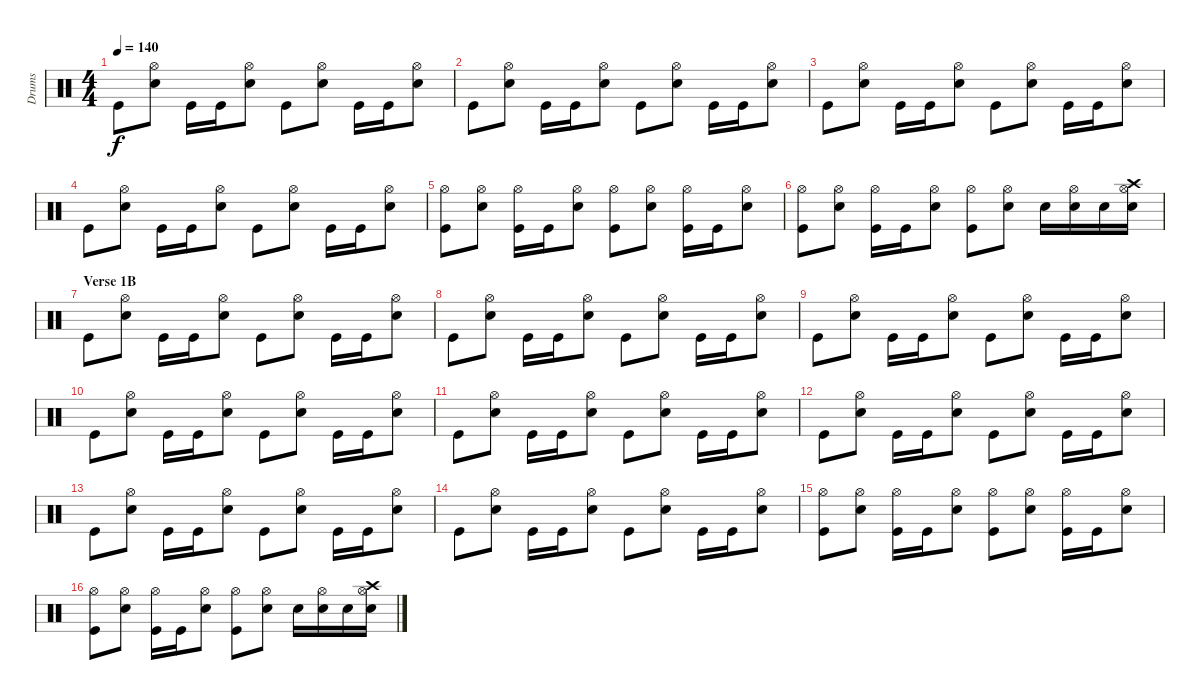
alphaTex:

\track ("Drums" "Drums") {instrument percussion}
\staff {score}
\articulation defaults
\ts (4 4)
\tempo 140
\clef neutral
\ks c "Kick (hit)".8{dy f}
("Snare (hit) 2" "Hi-Hat (open)").8 "Kick (hit)".16 "Kick (hit)".16 ("Snare (hit) 2" "Hi-Hat (open)").8 "Kick (hit)".8 ("Snare (hit) 2" "Hi-Hat (open)").8 "Kick (hit)".16 "Kick (hit)".16 ("Snare (hit) 2" "Hi-Hat (open)").8 |
"Kick (hit)".8 ("Snare (hit) 2" "Hi-Hat (open)").8 "Kick (hit)".16 "Kick (hit)".16 ("Snare (hit) 2" "Hi-Hat (open)").8 "Kick (hit)".8 ("Snare (hit) 2" "Hi-Hat (open)").8 "Kick (hit)".16 "Kick (hit)".16 ("Snare (hit) 2" "Hi-Hat (open)").8 |
"Kick (hit)".8 ("Snare (hit) 2" "Hi-Hat (open)").8 "Kick (hit)".16 "Kick (hit)".16 ("Snare (hit) 2" "Hi-Hat (open)").8 "Kick (hit)".8 ("Snare (hit) 2" "Hi-Hat (open)").8 "Kick (hit)".16 "Kick (hit)".16 ("Snare (hit) 2" "Hi-Hat (open)").8 |
"Kick (hit)".8 ("Snare (hit) 2" "Hi-Hat (open)").8 "Kick (hit)".16 "Kick (hit)".16 ("Snare (hit) 2" "Hi-Hat (open)").8 "Kick (hit)".8 ("Snare (hit) 2" "Hi-Hat (open)").8 "Kick (hit)".16 "Kick (hit)".16 ("Snare (hit) 2" "Hi-Hat (open)").8 |
("Kick (hit)" "Hi-Hat (open)").8 ("Snare (hit) 2" "Hi-Hat (open)").8 ("Kick (hit)" "Hi-Hat (open)").16 "Kick (hit)".16 ("Snare (hit) 2" "Hi-Hat (open)").8 ("Kick (hit)" "Hi-Hat (open)").8 ("Snare (hit) 2" "Hi-Hat (open)").8 ("Kick (hit)" "Hi-Hat (open)").16 "Kick (hit)".16 ("Snare (hit) 2" "Hi-Hat (open)").8 |
("Kick (hit)" "Hi-Hat (open)").8 ("Snare (hit) 2" "Hi-Hat (open)").8 ("Kick (hit)" "Hi-Hat (open)").16 "Kick (hit)".16 ("Snare (hit) 2" "Hi-Hat (open)").8 ("Kick (hit)" "Hi-Hat (open)").8 ("Snare (hit) 2" "Hi-Hat (open)").8 "Electric Snare (hit)".16 ("Electric Snare (hit)" "Hi-Hat (open)").16 "Electric Snare (hit)".16 ("Crash high (hit)" "Electric Snare (hit)" "Hi-Hat (open)").16 |
\section ("" "Verse 1B")
"Kick (hit)".8 ("Snare (hit) 2" "Hi-Hat (open)").8 "Kick (hit)".16 "Kick (hit)".16 ("Snare (hit) 2" "Hi-Hat (open)").8 "Kick (hit)".8 ("Snare (hit) 2" "Hi-Hat (open)").8 "Kick (hit)".16 "Kick (hit)".16 ("Snare (hit) 2" "Hi-Hat (open)").8 |
"Kick (hit)".8 ("Snare (hit) 2" "Hi-Hat (open)").8 "Kick (hit)".16 "Kick (hit)".16 ("Snare (hit) 2" "Hi-Hat (open)").8 "Kick (hit)".8 ("Snare (hit) 2" "Hi-Hat (open)").8 "Kick (hit)".16 "Kick (hit)".16 ("Snare (hit) 2" "Hi-Hat (open)").8 |
"Kick (hit)".8 ("Snare (hit) 2" "Hi-Hat (open)").8 "Kick (hit)".16 "Kick (hit)".16 ("Snare (hit) 2" "Hi-Hat (open)").8 "Kick (hit)".8 ("Snare (hit) 2" "Hi-Hat (open)").8 "Kick (hit)".16 "Kick (hit)".16 ("Snare (hit) 2" "Hi-Hat (open)").8 |
"Kick (hit)".8 ("Snare (hit) 2" "Hi-Hat (open)").8 "Kick (hit)".16 "Kick (hit)".16 ("Snare (hit) 2" "Hi-Hat (open)").8 "Kick (hit)".8 ("Snare (hit) 2" "Hi-Hat (open)").8 "Kick (hit)".16 "Kick (hit)".16 ("Snare (hit) 2" "Hi-Hat (open)").8 |
"Kick (hit)".8 ("Snare (hit) 2" "Hi-Hat (open)").8 "Kick (hit)".16 "Kick (hit)".16 ("Snare (hit) 2" "Hi-Hat (open)").8 "Kick (hit)".8 ("Snare (hit) 2" "Hi-Hat (open)").8 "Kick (hit)".16 "Kick (hit)".16 ("Snare (hit) 2" "Hi-Hat (open)").8 |
"Kick (hit)".8 ("Snare (hit) 2" "Hi-Hat (open)").8 "Kick (hit)".16 "Kick (hit)".16 ("Snare (hit) 2" "Hi-Hat (open)").8 "Kick (hit)".8 ("Snare (hit) 2" "Hi-Hat (open)").8 "Kick (hit)".16 "Kick (hit)".16 ("Snare (hit) 2" "Hi-Hat (open)").8 |
"Kick (hit)".8 ("Snare (hit) 2" "Hi-Hat (open)").8 "Kick (hit)".16 "Kick (hit)".16 ("Snare (hit) 2" "Hi-Hat (open)").8 "Kick (hit)".8 ("Snare (hit) 2" "Hi-Hat (open)").8 "Kick (hit)".16 "Kick (hit)".16 ("Snare (hit) 2" "Hi-Hat (open)").8 |
"Kick (hit)".8 ("Snare (hit) 2" "Hi-Hat (open)").8 "Kick (hit)".16 "Kick (hit)".16 ("Snare (hit) 2" "Hi-Hat (open)").8 "Kick (hit)".8 ("Snare (hit) 2" "Hi-Hat (open)").8 "Kick (hit)".16 "Kick (hit)".16 ("Snare (hit) 2" "Hi-Hat (open)").8 |
("Kick (hit)" "Hi-Hat (open)").8 ("Snare (hit) 2" "Hi-Hat (open)").8 ("Kick (hit)" "Hi-Hat (open)").16 "Kick (hit)".16 ("Snare (hit) 2" "Hi-Hat (open)").8 ("Kick (hit)" "Hi-Hat (open)").8 ("Snare (hit) 2" "Hi-Hat (open)").8 ("Kick (hit)" "Hi-Hat (open)").16 "Kick (hit)".16 ("Snare (hit) 2" "Hi-Hat (open)").8 |
("Kick (hit)" "Hi-Hat (open)").8 ("Snare (hit) 2" "Hi-Hat (open)").8 ("Kick (hit)" "Hi-Hat (open)").16 "Kick (hit)".16 ("Snare (hit) 2" "Hi-Hat (open)").8 ("Kick (hit)" "Hi-Hat (open)").8 ("Snare (hit) 2" "Hi-Hat (open)").8 "Electric Snare (hit)".16 ("Electric Snare (hit)" "Hi-Hat (open)").16 "Electric Snare (hit)".16 ("Crash high (hit)" "Electric Snare (hit)" "Hi-Hat (open)").16
